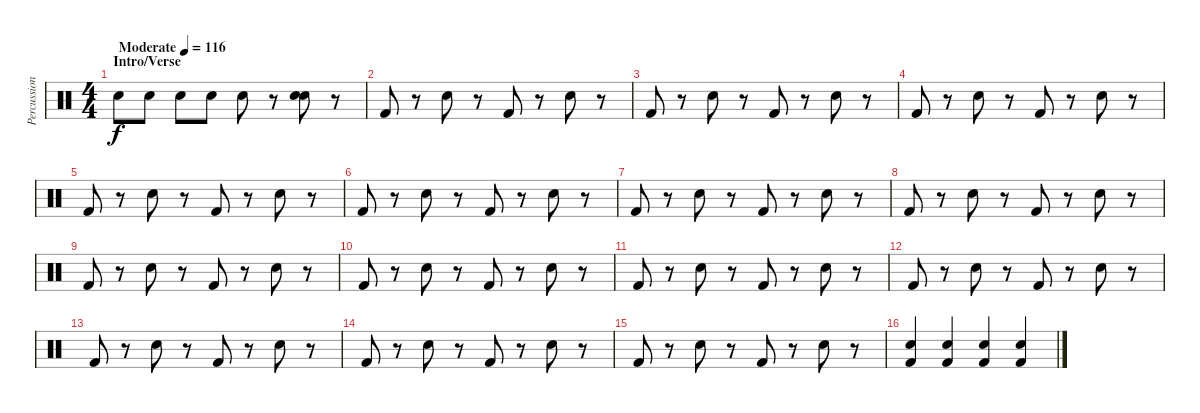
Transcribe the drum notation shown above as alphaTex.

\track ("Percussion" "Percussion") {instrument percussion}
\staff {score}
\articulation defaults
\ts (4 4)
\section ("" "Intro/Verse")
\tempo (116 "Moderate")
\clef neutral
\ks c "Snare (hit) 2".8{dy f} "Snare (hit) 2".8 "Snare (hit) 2".8 "Snare (hit) 2".8 "Snare (hit) 2".8
r.8 ("Hand Clap (hit)" "Snare (hit) 2").8 r.8 |
"Kick (hit) 2".8 r.8 "Snare (hit) 2".8 r.8 "Kick (hit) 2".8 r.8 "Snare (hit) 2".8 r.8 |
"Kick (hit) 2".8 r.8 "Snare (hit) 2".8 r.8 "Kick (hit) 2".8 r.8 "Snare (hit) 2".8 r.8 |
"Kick (hit) 2".8 r.8 "Snare (hit) 2".8 r.8 "Kick (hit) 2".8 r.8 "Snare (hit) 2".8 r.8 |
"Kick (hit) 2".8 r.8 "Snare (hit) 2".8 r.8 "Kick (hit) 2".8 r.8 "Snare (hit) 2".8 r.8 |
"Kick (hit) 2".8 r.8 "Snare (hit) 2".8 r.8 "Kick (hit) 2".8 r.8 "Snare (hit) 2".8 r.8 |
"Kick (hit) 2".8 r.8 "Snare (hit) 2".8 r.8 "Kick (hit) 2".8 r.8 "Snare (hit) 2".8 r.8 |
"Kick (hit) 2".8 r.8 "Snare (hit) 2".8 r.8 "Kick (hit) 2".8 r.8 "Snare (hit) 2".8 r.8 |
"Kick (hit) 2".8 r.8 "Snare (hit) 2".8 r.8 "Kick (hit) 2".8 r.8 "Snare (hit) 2".8 r.8 |
"Kick (hit) 2".8 r.8 "Snare (hit) 2".8 r.8 "Kick (hit) 2".8 r.8 "Snare (hit) 2".8 r.8 |
"Kick (hit) 2".8 r.8 "Snare (hit) 2".8 r.8 "Kick (hit) 2".8 r.8 "Snare (hit) 2".8 r.8 |
"Kick (hit) 2".8 r.8 "Snare (hit) 2".8 r.8 "Kick (hit) 2".8 r.8 "Snare (hit) 2".8 r.8 |
"Kick (hit) 2".8 r.8 "Snare (hit) 2".8 r.8 "Kick (hit) 2".8 r.8 "Snare (hit) 2".8 r.8 |
"Kick (hit) 2".8 r.8 "Snare (hit) 2".8 r.8 "Kick (hit) 2".8 r.8 "Snare (hit) 2".8 r.8 |
"Kick (hit) 2".8 r.8 "Snare (hit) 2".8 r.8 "Kick (hit) 2".8 r.8 "Snare (hit) 2".8 r.8 |
("Snare (hit) 2" "Kick (hit) 2").4 ("Snare (hit) 2" "Kick (hit) 2").4 ("Snare (hit) 2" "Kick (hit) 2").4 ("Snare (hit) 2" "Kick (hit) 2").4
